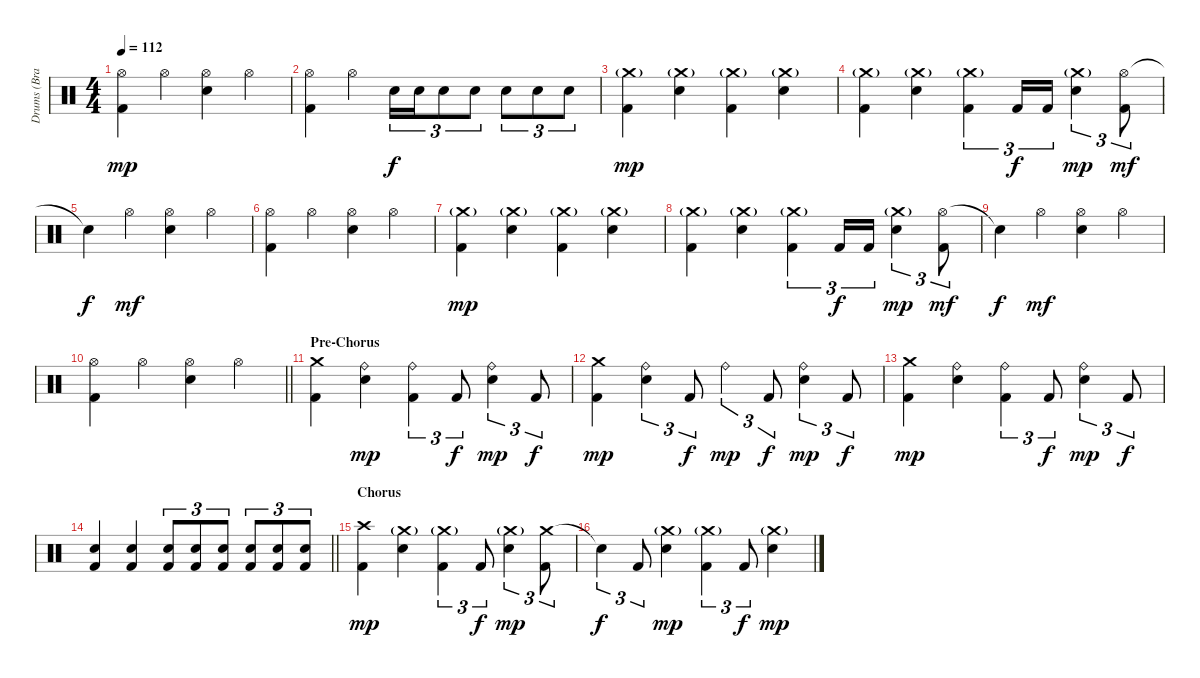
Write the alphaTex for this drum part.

\track ("Drums (Brandon Saller)" "Drums (Bra") {instrument percussion}
\staff {score}
\articulation defaults
\ts (4 4)
\tempo 112
\clef neutral
\ks c
("Hi-Hat (open)" "Kick (hit) 2").4{dy mp} "Hi-Hat (open)".4 ("Hi-Hat (open)" "Electric Snare (hit)").4 "Hi-Hat (open)".4 |
("Hi-Hat (open)" "Kick (hit) 2").4 "Hi-Hat (open)".4 "Electric Snare (hit)".16{tu (3 2) dy f} "Electric Snare (hit)".16{tu (3 2)} "Electric Snare (hit)".8{tu (3 2)} "Electric Snare (hit)".8{tu (3 2)} "Electric Snare (hit)".8{tu (3 2)} "Electric Snare (hit)".8{tu (3 2)} "Electric Snare (hit)".8{tu (3 2)} |
("Crash medium (hit)"{g} "Kick (hit) 2").4{dy mp} ("Crash medium (hit)"{g} "Electric Snare (hit)").4 ("Crash medium (hit)"{g} "Kick (hit) 2").4 ("Crash medium (hit)"{g} "Electric Snare (hit)").4 |
("Crash medium (hit)"{g} "Kick (hit) 2").4 ("Crash medium (hit)"{g} "Electric Snare (hit)").4 ("Crash medium (hit)"{g} "Kick (hit) 2").4{tu (3 2)} "Kick (hit) 2".16{tu (3 2) dy f} "Kick (hit) 2".16{tu (3 2)} ("Crash medium (hit)"{g} "Electric Snare (hit)").4{tu (3 2) dy mp} ("Hi-Hat (open)" "Kick (hit) 2").8{tu (3 2) dy mf} |
"Snare (hit)"{t}.4{dy f} "Hi-Hat (open)".4{dy mf} ("Hi-Hat (open)" "Electric Snare (hit)").4 "Hi-Hat (open)".4 |
("Hi-Hat (open)" "Kick (hit) 2").4 "Hi-Hat (open)".4 ("Hi-Hat (open)" "Electric Snare (hit)").4 "Hi-Hat (open)".4 |
("Crash medium (hit)"{g} "Kick (hit) 2").4{dy mp} ("Crash medium (hit)"{g} "Electric Snare (hit)").4 ("Crash medium (hit)"{g} "Kick (hit) 2").4 ("Crash medium (hit)"{g} "Electric Snare (hit)").4 |
("Crash medium (hit)"{g} "Kick (hit) 2").4 ("Crash medium (hit)"{g} "Electric Snare (hit)").4 ("Crash medium (hit)"{g} "Kick (hit) 2").4{tu (3 2)} "Kick (hit) 2".16{tu (3 2) dy f} "Kick (hit) 2".16{tu (3 2)} ("Crash medium (hit)"{g} "Electric Snare (hit)").4{tu (3 2) dy mp} ("Hi-Hat (open)" "Kick (hit) 2").8{tu (3 2) dy mf} |
"Snare (hit)"{t}.4{dy f} "Hi-Hat (open)".4{dy mf} ("Hi-Hat (open)" "Electric Snare (hit)").4 "Hi-Hat (open)".4 |
\barLineRight lightlight
("Hi-Hat (open)" "Kick (hit) 2").4 "Hi-Hat (open)".4 ("Hi-Hat (open)" "Electric Snare (hit)").4 "Hi-Hat (open)".4 |
\section ("" "Pre-Chorus")
("Crash medium (hit)" "Kick (hit) 2").4 ("Ride (bell)" "Electric Snare (hit)").4{dy mp} ("Ride (bell)" "Kick (hit) 2").4{tu (3 2)} "Kick (hit) 2".8{tu (3 2) dy f} ("Ride (bell)" "Electric Snare (hit)").4{tu (3 2) dy mp} "Kick (hit) 2".8{tu (3 2) dy f} |
("Crash medium (hit)" "Kick (hit) 2").4{dy mp} ("Ride (bell)" "Electric Snare (hit)").4{tu (3 2)} "Kick (hit) 2".8{tu (3 2) dy f} "Ride (bell)".4{tu (3 2) dy mp} "Kick (hit) 2".8{tu (3 2) dy f} ("Ride (bell)" "Electric Snare (hit)").4{tu (3 2) dy mp} "Kick (hit) 2".8{tu (3 2) dy f} |
("Crash medium (hit)" "Kick (hit) 2").4{dy mp} ("Ride (bell)" "Electric Snare (hit)").4 ("Ride (bell)" "Kick (hit) 2").4{tu (3 2)} "Kick (hit) 2".8{tu (3 2) dy f} ("Ride (bell)" "Electric Snare (hit)").4{tu (3 2) dy mp} "Kick (hit) 2".8{tu (3 2) dy f} |
\barLineRight lightlight
("Electric Snare (hit)" "Kick (hit) 2").4 ("Electric Snare (hit)" "Kick (hit) 2").4 ("Electric Snare (hit)" "Kick (hit) 2").8{tu (3 2)} ("Electric Snare (hit)" "Kick (hit) 2").8{tu (3 2)} ("Electric Snare (hit)" "Kick (hit) 2").8{tu (3 2)} ("Electric Snare (hit)" "Kick (hit) 2").8{tu (3 2)} ("Electric Snare (hit)" "Kick (hit) 2").8{tu (3 2)} ("Electric Snare (hit)" "Kick (hit) 2").8{tu (3 2)} |
\section ("" "Chorus")
("Crash high (hit)" "Kick (hit) 2").4{dy mp} ("Crash medium (hit)"{g} "Electric Snare (hit)").4 ("Crash medium (hit)"{g} "Kick (hit) 2").4{tu (3 2)} "Kick (hit) 2".8{tu (3 2) dy f} ("Crash medium (hit)"{g} "Electric Snare (hit)").4{tu (3 2) dy mp} ("Crash medium (hit)" "Kick (hit) 2").8{tu (3 2)} |
"Snare (hit)"{t}.4{tu (3 2) dy f} "Kick (hit) 2".8{tu (3 2)} ("Crash medium (hit)"{g} "Electric Snare (hit)").4{dy mp} ("Crash medium (hit)"{g} "Kick (hit) 2").4{tu (3 2)} "Kick (hit) 2".8{tu (3 2) dy f} ("Crash medium (hit)"{g} "Electric Snare (hit)").4{dy mp}
